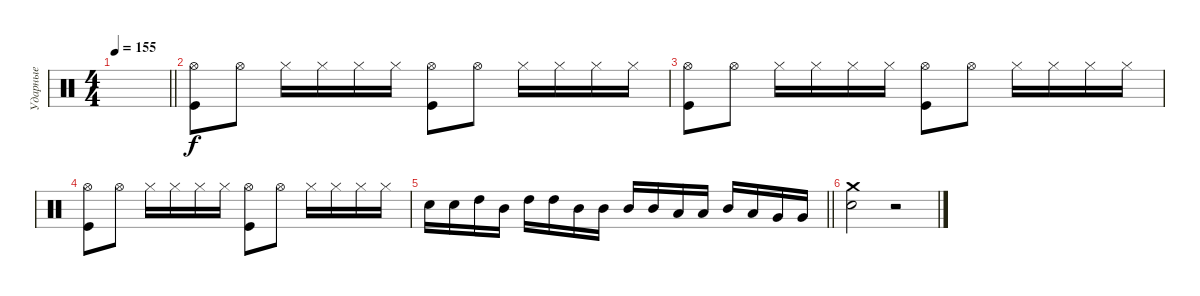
\track ("Ударные" "Ударные") {instrument percussion}
\staff {score}
\articulation defaults
\ts (4 4)
\tempo 155
\clef neutral
\barLineRight lightlight
\ks c
|
("Kick (hit)" "Hi-Hat (open)").8 "Hi-Hat (open)".8 "Hi-Hat (closed)".16 "Hi-Hat (closed)".16 "Hi-Hat (closed)".16 "Hi-Hat (closed)".16 ("Kick (hit)" "Hi-Hat (open)").8 "Hi-Hat (open)".8 "Hi-Hat (closed)".16 "Hi-Hat (closed)".16 "Hi-Hat (closed)".16 "Hi-Hat (closed)".16 |
("Kick (hit)" "Hi-Hat (open)").8 "Hi-Hat (open)".8 "Hi-Hat (closed)".16 "Hi-Hat (closed)".16 "Hi-Hat (closed)".16 "Hi-Hat (closed)".16 ("Kick (hit)" "Hi-Hat (open)").8 "Hi-Hat (open)".8 "Hi-Hat (closed)".16 "Hi-Hat (closed)".16 "Hi-Hat (closed)".16 "Hi-Hat (closed)".16 |
("Kick (hit)" "Hi-Hat (open)").8 "Hi-Hat (open)".8 "Hi-Hat (closed)".16 "Hi-Hat (closed)".16 "Hi-Hat (closed)".16 "Hi-Hat (closed)".16 ("Kick (hit)" "Hi-Hat (open)").8 "Hi-Hat (open)".8 "Hi-Hat (closed)".16 "Hi-Hat (closed)".16 "Hi-Hat (closed)".16 "Hi-Hat (closed)".16 |
\barLineRight lightlight "Snare (hit) 2".16 "Snare (hit) 2".16 "High Tom (hit)".16 "Mid Tom (hit)".16 "High Tom (hit)".16 "High Tom (hit)".16 "Mid Tom (hit)".16 "Mid Tom (hit)".16 "Mid Tom (hit)".16 "Mid Tom (hit)".16 "Low Tom (hit)".16 "Low Tom (hit)".16 "Mid Tom (hit)".16 "Low Tom (hit)".16 "Very Low Tom (hit)".16 "Very Low Tom (hit)".16
|
("Snare (hit) 2" "Crash medium (hit)").2 r.2
